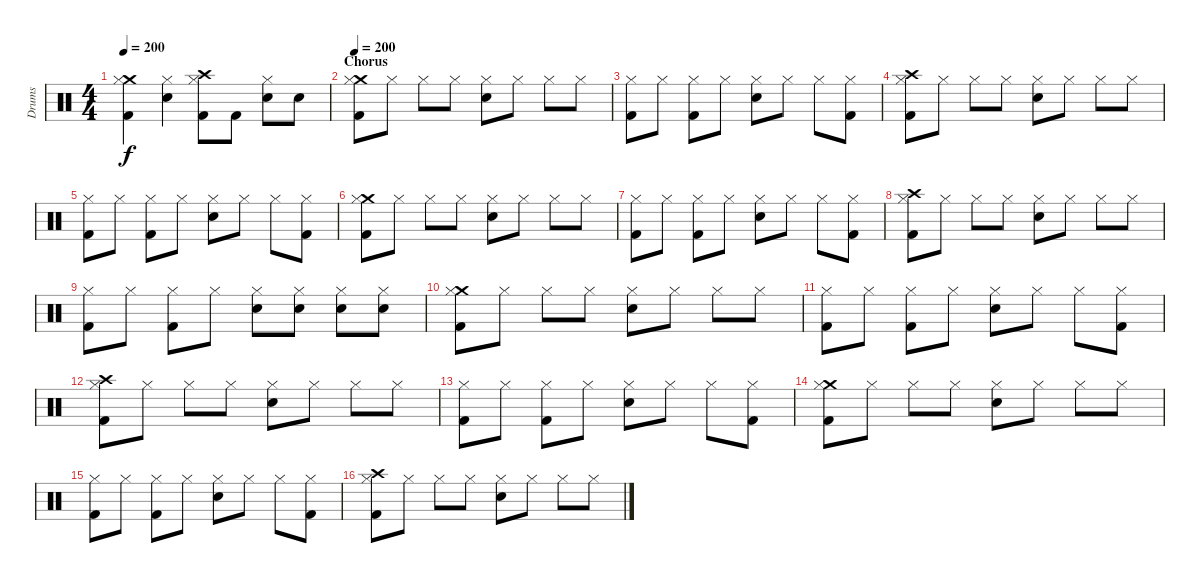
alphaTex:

\track ("Drums" "Drums") {instrument percussion}
\staff {score}
\articulation defaults
\ts (4 4)
\tempo 200
\clef neutral
\ks c
("Crash medium (hit)" "Hi-Hat (closed)" "Kick (hit) 2").4{dy f} ("Hi-Hat (closed)" "Electric Snare (hit)").4 ("Crash high (hit)" "Hi-Hat (closed)" "Kick (hit) 2").8 "Kick (hit) 2".8 ("Hi-Hat (closed)" "Electric Snare (hit)").8 "Electric Snare (hit)".8 |
\section ("" "Chorus")
\tempo 200
("Crash medium (hit)" "Hi-Hat (closed)" "Kick (hit) 2").8 "Hi-Hat (closed)".8 "Hi-Hat (closed)".8 "Hi-Hat (closed)".8 ("Hi-Hat (closed)" "Electric Snare (hit)").8 "Hi-Hat (closed)".8 "Hi-Hat (closed)".8 "Hi-Hat (closed)".8 |
("Hi-Hat (closed)" "Kick (hit) 2").8 "Hi-Hat (closed)".8 ("Hi-Hat (closed)" "Kick (hit) 2").8 "Hi-Hat (closed)".8 ("Hi-Hat (closed)" "Electric Snare (hit)").8 "Hi-Hat (closed)".8 "Hi-Hat (closed)".8 ("Hi-Hat (closed)" "Kick (hit) 2").8 |
("Crash high (hit)" "Hi-Hat (closed)" "Kick (hit) 2").8 "Hi-Hat (closed)".8 "Hi-Hat (closed)".8 "Hi-Hat (closed)".8 ("Hi-Hat (closed)" "Electric Snare (hit)").8 "Hi-Hat (closed)".8 "Hi-Hat (closed)".8 "Hi-Hat (closed)".8 |
("Hi-Hat (closed)" "Kick (hit) 2").8 "Hi-Hat (closed)".8 ("Hi-Hat (closed)" "Kick (hit) 2").8 "Hi-Hat (closed)".8 ("Hi-Hat (closed)" "Electric Snare (hit)").8 "Hi-Hat (closed)".8 "Hi-Hat (closed)".8 ("Hi-Hat (closed)" "Kick (hit) 2").8 |
("Crash medium (hit)" "Hi-Hat (closed)" "Kick (hit) 2").8 "Hi-Hat (closed)".8 "Hi-Hat (closed)".8 "Hi-Hat (closed)".8 ("Hi-Hat (closed)" "Electric Snare (hit)").8 "Hi-Hat (closed)".8 "Hi-Hat (closed)".8 "Hi-Hat (closed)".8 |
("Hi-Hat (closed)" "Kick (hit) 2").8 "Hi-Hat (closed)".8 ("Hi-Hat (closed)" "Kick (hit) 2").8 "Hi-Hat (closed)".8 ("Hi-Hat (closed)" "Electric Snare (hit)").8 "Hi-Hat (closed)".8 "Hi-Hat (closed)".8 ("Hi-Hat (closed)" "Kick (hit) 2").8 |
("Crash high (hit)" "Hi-Hat (closed)" "Kick (hit) 2").8 "Hi-Hat (closed)".8 "Hi-Hat (closed)".8 "Hi-Hat (closed)".8 ("Hi-Hat (closed)" "Electric Snare (hit)").8 "Hi-Hat (closed)".8 "Hi-Hat (closed)".8 "Hi-Hat (closed)".8 |
("Hi-Hat (closed)" "Kick (hit) 2").8 "Hi-Hat (closed)".8 ("Hi-Hat (closed)" "Kick (hit) 2").8 "Hi-Hat (closed)".8 ("Hi-Hat (closed)" "Electric Snare (hit)").8 ("Hi-Hat (closed)" "Electric Snare (hit)").8 ("Hi-Hat (closed)" "Electric Snare (hit)").8 ("Hi-Hat (closed)" "Electric Snare (hit)").8 |
("Crash medium (hit)" "Hi-Hat (closed)" "Kick (hit) 2").8 "Hi-Hat (closed)".8 "Hi-Hat (closed)".8 "Hi-Hat (closed)".8 ("Hi-Hat (closed)" "Electric Snare (hit)").8 "Hi-Hat (closed)".8 "Hi-Hat (closed)".8 "Hi-Hat (closed)".8 |
("Hi-Hat (closed)" "Kick (hit) 2").8 "Hi-Hat (closed)".8 ("Hi-Hat (closed)" "Kick (hit) 2").8 "Hi-Hat (closed)".8 ("Hi-Hat (closed)" "Electric Snare (hit)").8 "Hi-Hat (closed)".8 "Hi-Hat (closed)".8 ("Hi-Hat (closed)" "Kick (hit) 2").8 |
("Crash high (hit)" "Hi-Hat (closed)" "Kick (hit) 2").8 "Hi-Hat (closed)".8 "Hi-Hat (closed)".8 "Hi-Hat (closed)".8 ("Hi-Hat (closed)" "Electric Snare (hit)").8 "Hi-Hat (closed)".8 "Hi-Hat (closed)".8 "Hi-Hat (closed)".8 |
("Hi-Hat (closed)" "Kick (hit) 2").8 "Hi-Hat (closed)".8 ("Hi-Hat (closed)" "Kick (hit) 2").8 "Hi-Hat (closed)".8 ("Hi-Hat (closed)" "Electric Snare (hit)").8 "Hi-Hat (closed)".8 "Hi-Hat (closed)".8 ("Hi-Hat (closed)" "Kick (hit) 2").8 |
("Crash medium (hit)" "Hi-Hat (closed)" "Kick (hit) 2").8 "Hi-Hat (closed)".8 "Hi-Hat (closed)".8 "Hi-Hat (closed)".8 ("Hi-Hat (closed)" "Electric Snare (hit)").8 "Hi-Hat (closed)".8 "Hi-Hat (closed)".8 "Hi-Hat (closed)".8 |
("Hi-Hat (closed)" "Kick (hit) 2").8 "Hi-Hat (closed)".8 ("Hi-Hat (closed)" "Kick (hit) 2").8 "Hi-Hat (closed)".8 ("Hi-Hat (closed)" "Electric Snare (hit)").8 "Hi-Hat (closed)".8 "Hi-Hat (closed)".8 ("Hi-Hat (closed)" "Kick (hit) 2").8 |
("Crash high (hit)" "Hi-Hat (closed)" "Kick (hit) 2").8 "Hi-Hat (closed)".8 "Hi-Hat (closed)".8 "Hi-Hat (closed)".8 ("Hi-Hat (closed)" "Electric Snare (hit)").8 "Hi-Hat (closed)".8 "Hi-Hat (closed)".8 "Hi-Hat (closed)".8
